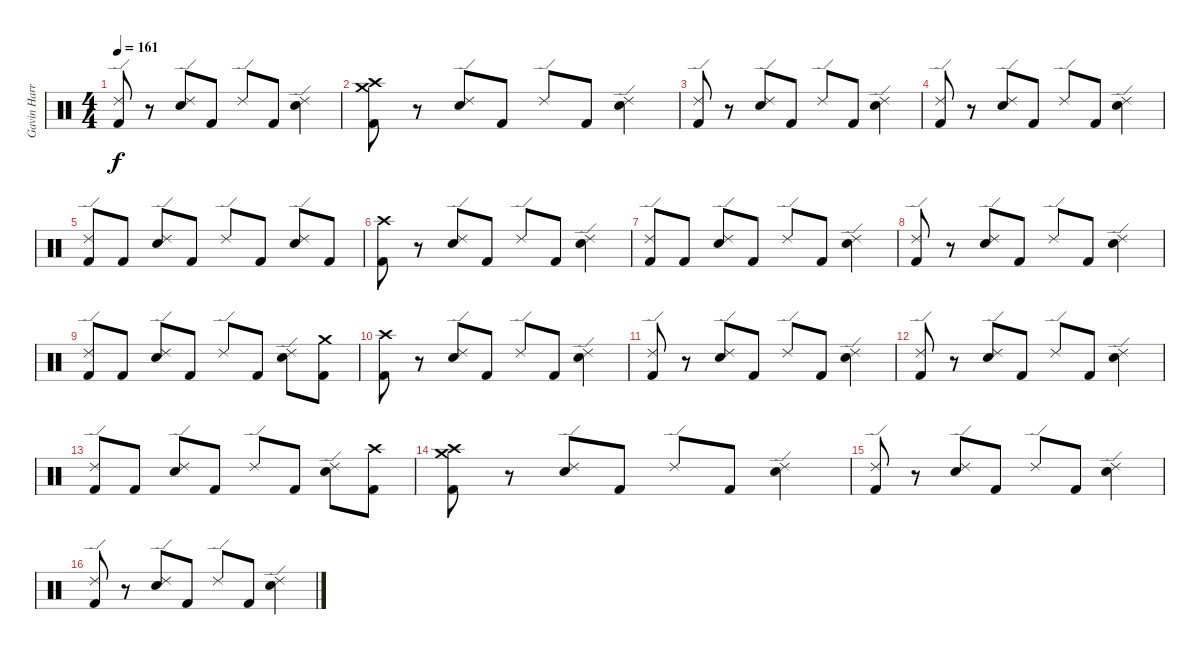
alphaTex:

\track ("Gavin Harrison (Drums)" "Gavin Harr") {instrument percussion}
\staff {score}
\articulation defaults
\ts (4 4)
\tempo 161
\clef neutral
\ks c
("Ride (edge) 2" "Kick (hit) 2").8{dy f} r.8 ("Ride (edge) 2" "Electric Snare (hit)").8 "Kick (hit) 2".8 "Ride (edge) 2".8 "Kick (hit) 2".8 ("Ride (edge) 2" "Electric Snare (hit)").4 |
("Crash medium (hit)" "Crash high (hit)" "Kick (hit) 2").8 r.8 ("Ride (edge) 2" "Electric Snare (hit)").8 "Kick (hit) 2".8 "Ride (edge) 2".8 "Kick (hit) 2".8 ("Ride (edge) 2" "Electric Snare (hit)").4 |
("Ride (edge) 2" "Kick (hit) 2").8 r.8 ("Ride (edge) 2" "Electric Snare (hit)").8 "Kick (hit) 2".8 "Ride (edge) 2".8 "Kick (hit) 2".8 ("Ride (edge) 2" "Electric Snare (hit)").4 |
("Ride (edge) 2" "Kick (hit) 2").8 r.8 ("Ride (edge) 2" "Electric Snare (hit)").8 "Kick (hit) 2".8 "Ride (edge) 2".8 "Kick (hit) 2".8 ("Ride (edge) 2" "Electric Snare (hit)").4 |
("Ride (edge) 2" "Kick (hit) 2").8 "Kick (hit) 2".8 ("Ride (edge) 2" "Electric Snare (hit)").8 "Kick (hit) 2".8 "Ride (edge) 2".8 "Kick (hit) 2".8 ("Ride (edge) 2" "Electric Snare (hit)").8 "Kick (hit) 2".8 |
("Crash high (hit)" "Kick (hit) 2").8 r.8 ("Ride (edge) 2" "Electric Snare (hit)").8 "Kick (hit) 2".8 "Ride (edge) 2".8 "Kick (hit) 2".8 ("Ride (edge) 2" "Electric Snare (hit)").4 |
("Ride (edge) 2" "Kick (hit) 2").8 "Kick (hit) 2".8 ("Ride (edge) 2" "Electric Snare (hit)").8 "Kick (hit) 2".8 "Ride (edge) 2".8 "Kick (hit) 2".8 ("Ride (edge) 2" "Electric Snare (hit)").4 |
("Ride (edge) 2" "Kick (hit) 2").8 r.8 ("Ride (edge) 2" "Electric Snare (hit)").8 "Kick (hit) 2".8 "Ride (edge) 2".8 "Kick (hit) 2".8 ("Ride (edge) 2" "Electric Snare (hit)").4 |
("Ride (edge) 2" "Kick (hit) 2").8 "Kick (hit) 2".8 ("Ride (edge) 2" "Electric Snare (hit)").8 "Kick (hit) 2".8 "Ride (edge) 2".8 "Kick (hit) 2".8 ("Ride (edge) 2" "Electric Snare (hit)").8 ("Crash medium (hit)" "Kick (hit) 2").8 |
("Crash high (hit)" "Kick (hit) 2").8 r.8 ("Ride (edge) 2" "Electric Snare (hit)").8 "Kick (hit) 2".8 "Ride (edge) 2".8 "Kick (hit) 2".8 ("Ride (edge) 2" "Electric Snare (hit)").4 |
("Ride (edge) 2" "Kick (hit) 2").8 r.8 ("Ride (edge) 2" "Electric Snare (hit)").8 "Kick (hit) 2".8 "Ride (edge) 2".8 "Kick (hit) 2".8 ("Ride (edge) 2" "Electric Snare (hit)").4 |
("Ride (edge) 2" "Kick (hit) 2").8 r.8 ("Ride (edge) 2" "Electric Snare (hit)").8 "Kick (hit) 2".8 "Ride (edge) 2".8 "Kick (hit) 2".8 ("Ride (edge) 2" "Electric Snare (hit)").4 |
("Ride (edge) 2" "Kick (hit) 2").8 "Kick (hit) 2".8 ("Ride (edge) 2" "Electric Snare (hit)").8 "Kick (hit) 2".8 "Ride (edge) 2".8 "Kick (hit) 2".8 ("Ride (edge) 2" "Electric Snare (hit)").8 ("Crash high (hit)" "Kick (hit) 2").8 |
("Crash medium (hit)" "Crash high (hit)" "Kick (hit) 2").8 r.8 ("Ride (edge) 2" "Electric Snare (hit)").8 "Kick (hit) 2".8 "Ride (edge) 2".8 "Kick (hit) 2".8 ("Ride (edge) 2" "Electric Snare (hit)").4 |
("Ride (edge) 2" "Kick (hit) 2").8 r.8 ("Ride (edge) 2" "Electric Snare (hit)").8 "Kick (hit) 2".8 "Ride (edge) 2".8 "Kick (hit) 2".8 ("Ride (edge) 2" "Electric Snare (hit)").4 |
("Ride (edge) 2" "Kick (hit) 2").8 r.8 ("Ride (edge) 2" "Electric Snare (hit)").8 "Kick (hit) 2".8 "Ride (edge) 2".8 "Kick (hit) 2".8 ("Ride (edge) 2" "Electric Snare (hit)").4
